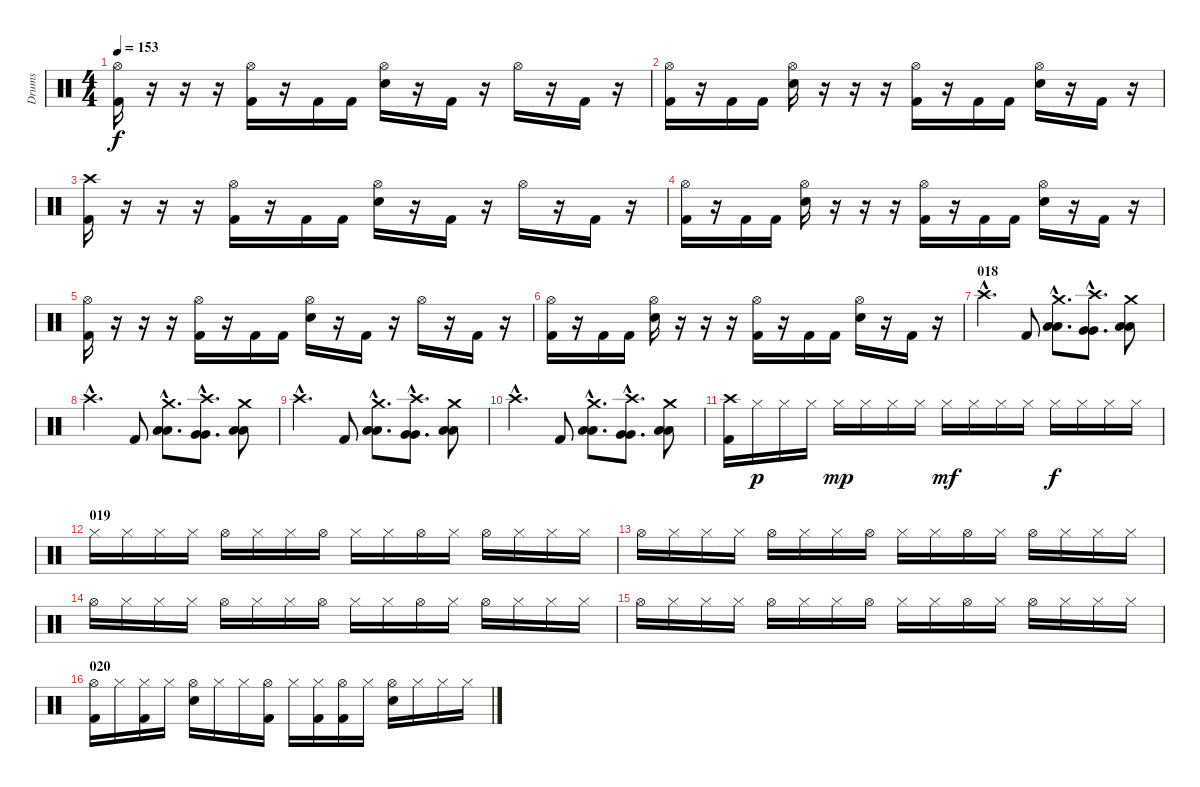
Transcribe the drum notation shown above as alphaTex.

\track ("Drums" "Drums") {instrument percussion}
\staff {score}
\articulation defaults
\ts (4 4)
\tempo 153
\clef neutral
\ks c
("Hi-Hat (open)" "Kick (hit) 2").16{dy f} r.16 r.16 r.16 ("Hi-Hat (open)" "Kick (hit) 2").16 r.16 "Kick (hit) 2".16 "Kick (hit) 2".16 ("Hi-Hat (open)" "Electric Snare (hit)").16 r.16 "Kick (hit) 2".16 r.16 "Hi-Hat (open)".16 r.16 "Kick (hit) 2".16 r.16 |
("Hi-Hat (open)" "Kick (hit) 2").16 r.16 "Kick (hit) 2".16 "Kick (hit) 2".16 ("Hi-Hat (open)" "Electric Snare (hit)").16 r.16 r.16 r.16 ("Hi-Hat (open)" "Kick (hit) 2").16 r.16 "Kick (hit) 2".16 "Kick (hit) 2".16 ("Hi-Hat (open)" "Electric Snare (hit)").16 r.16 "Kick (hit) 2".16 r.16 |
("Crash high (hit)" "Kick (hit) 2").16 r.16 r.16 r.16 ("Hi-Hat (open)" "Kick (hit) 2").16 r.16 "Kick (hit) 2".16 "Kick (hit) 2".16 ("Hi-Hat (open)" "Electric Snare (hit)").16 r.16 "Kick (hit) 2".16 r.16 "Hi-Hat (open)".16 r.16 "Kick (hit) 2".16 r.16 |
("Hi-Hat (open)" "Kick (hit) 2").16 r.16 "Kick (hit) 2".16 "Kick (hit) 2".16 ("Hi-Hat (open)" "Electric Snare (hit)").16 r.16 r.16 r.16 ("Hi-Hat (open)" "Kick (hit) 2").16 r.16 "Kick (hit) 2".16 "Kick (hit) 2".16 ("Hi-Hat (open)" "Electric Snare (hit)").16 r.16 "Kick (hit) 2".16 r.16 |
("Hi-Hat (open)" "Kick (hit) 2").16 r.16 r.16 r.16 ("Hi-Hat (open)" "Kick (hit) 2").16 r.16 "Kick (hit) 2".16 "Kick (hit) 2".16 ("Hi-Hat (open)" "Electric Snare (hit)").16 r.16 "Kick (hit) 2".16 r.16 "Hi-Hat (open)".16 r.16 "Kick (hit) 2".16 r.16 |
("Hi-Hat (open)" "Kick (hit) 2").16 r.16 "Kick (hit) 2".16 "Kick (hit) 2".16 ("Hi-Hat (open)" "Electric Snare (hit)").16 r.16 r.16 r.16 ("Hi-Hat (open)" "Kick (hit) 2").16 r.16 "Kick (hit) 2".16 "Kick (hit) 2".16 ("Hi-Hat (open)" "Electric Snare (hit)").16 r.16 "Kick (hit) 2".16 r.16 |
\section ("" "018")
"Crash high (hit)"{hac}.4{d} "Kick (hit) 2".8 ("Low Tom (hit)"{hac} "Low Tom (hit)"{hac} "Crash medium (hit)"{hac}).8{d} ("Very Low Tom (hit)"{hac} "Very Low Tom (hit)"{hac} "Crash high (hit)"{hac}).8{d} ("Low Floor Tom (hit)" "Low Floor Tom (hit)" "Crash medium (hit)").8 |
"Crash high (hit)"{hac}.4{d} "Kick (hit) 2".8 ("Low Tom (hit)"{hac} "Low Tom (hit)"{hac} "Crash medium (hit)"{hac}).8{d} ("Very Low Tom (hit)"{hac} "Very Low Tom (hit)"{hac} "Crash high (hit)"{hac}).8{d} ("Low Floor Tom (hit)" "Low Floor Tom (hit)" "Crash medium (hit)").8 |
"Crash high (hit)"{hac}.4{d} "Kick (hit) 2".8 ("Low Tom (hit)"{hac} "Low Tom (hit)"{hac} "Crash medium (hit)"{hac}).8{d} ("Very Low Tom (hit)"{hac} "Very Low Tom (hit)"{hac} "Crash high (hit)"{hac}).8{d} ("Low Floor Tom (hit)" "Low Floor Tom (hit)" "Crash medium (hit)").8 |
"Crash high (hit)"{hac}.4{d} "Kick (hit) 2".8 ("Low Tom (hit)"{hac} "Low Tom (hit)"{hac} "Crash medium (hit)"{hac}).8{d} ("Very Low Tom (hit)"{hac} "Very Low Tom (hit)"{hac} "Crash high (hit)"{hac}).8{d} ("Low Floor Tom (hit)" "Low Floor Tom (hit)" "Crash medium (hit)").8 |
("Crash high (hit)" "Kick (hit) 2").16 "Hi-Hat (closed)".16{dy p} "Hi-Hat (closed)".16 "Hi-Hat (closed)".16 "Hi-Hat (closed)".16{dy mp} "Hi-Hat (closed)".16 "Hi-Hat (closed)".16 "Hi-Hat (closed)".16 "Hi-Hat (closed)".16{dy mf} "Hi-Hat (closed)".16 "Hi-Hat (closed)".16 "Hi-Hat (closed)".16 "Hi-Hat (closed)".16{dy f} "Hi-Hat (closed)".16 "Hi-Hat (closed)".16 "Hi-Hat (closed)".16 |
\section ("" "019")
"Hi-Hat (closed)".16 "Hi-Hat (closed)".16 "Hi-Hat (closed)".16 "Hi-Hat (closed)".16 "Hi-Hat (open)".16 "Hi-Hat (closed)".16 "Hi-Hat (closed)".16 "Hi-Hat (open)".16 "Hi-Hat (closed)".16 "Hi-Hat (closed)".16 "Hi-Hat (open)".16 "Hi-Hat (closed)".16 "Hi-Hat (open)".16 "Hi-Hat (closed)".16 "Hi-Hat (closed)".16 "Hi-Hat (closed)".16 |
"Hi-Hat (open)".16 "Hi-Hat (closed)".16 "Hi-Hat (closed)".16 "Hi-Hat (closed)".16 "Hi-Hat (open)".16 "Hi-Hat (closed)".16 "Hi-Hat (closed)".16 "Hi-Hat (open)".16 "Hi-Hat (closed)".16 "Hi-Hat (closed)".16 "Hi-Hat (open)".16 "Hi-Hat (closed)".16 "Hi-Hat (open)".16 "Hi-Hat (closed)".16 "Hi-Hat (closed)".16 "Hi-Hat (closed)".16 |
"Hi-Hat (open)".16 "Hi-Hat (closed)".16 "Hi-Hat (closed)".16 "Hi-Hat (closed)".16 "Hi-Hat (open)".16 "Hi-Hat (closed)".16 "Hi-Hat (closed)".16 "Hi-Hat (open)".16 "Hi-Hat (closed)".16 "Hi-Hat (closed)".16 "Hi-Hat (open)".16 "Hi-Hat (closed)".16 "Hi-Hat (open)".16 "Hi-Hat (closed)".16 "Hi-Hat (closed)".16 "Hi-Hat (closed)".16 |
"Hi-Hat (open)".16 "Hi-Hat (closed)".16 "Hi-Hat (closed)".16 "Hi-Hat (closed)".16 "Hi-Hat (open)".16 "Hi-Hat (closed)".16 "Hi-Hat (closed)".16 "Hi-Hat (open)".16 "Hi-Hat (closed)".16 "Hi-Hat (closed)".16 "Hi-Hat (open)".16 "Hi-Hat (closed)".16 "Hi-Hat (open)".16 "Hi-Hat (closed)".16 "Hi-Hat (closed)".16 "Hi-Hat (closed)".16 |
\section ("" "020")
("Hi-Hat (open)" "Kick (hit) 2").16 "Hi-Hat (closed)".16 ("Hi-Hat (closed)" "Kick (hit) 2").16 "Hi-Hat (closed)".16 ("Hi-Hat (open)" "Electric Snare (hit)").16 "Hi-Hat (closed)".16 "Hi-Hat (closed)".16 ("Hi-Hat (open)" "Kick (hit) 2").16 "Hi-Hat (closed)".16 ("Hi-Hat (closed)" "Kick (hit) 2").16 ("Hi-Hat (open)" "Kick (hit) 2").16 "Hi-Hat (closed)".16 ("Hi-Hat (open)" "Electric Snare (hit)").16 "Hi-Hat (closed)".16 "Hi-Hat (closed)".16 "Hi-Hat (closed)".16
